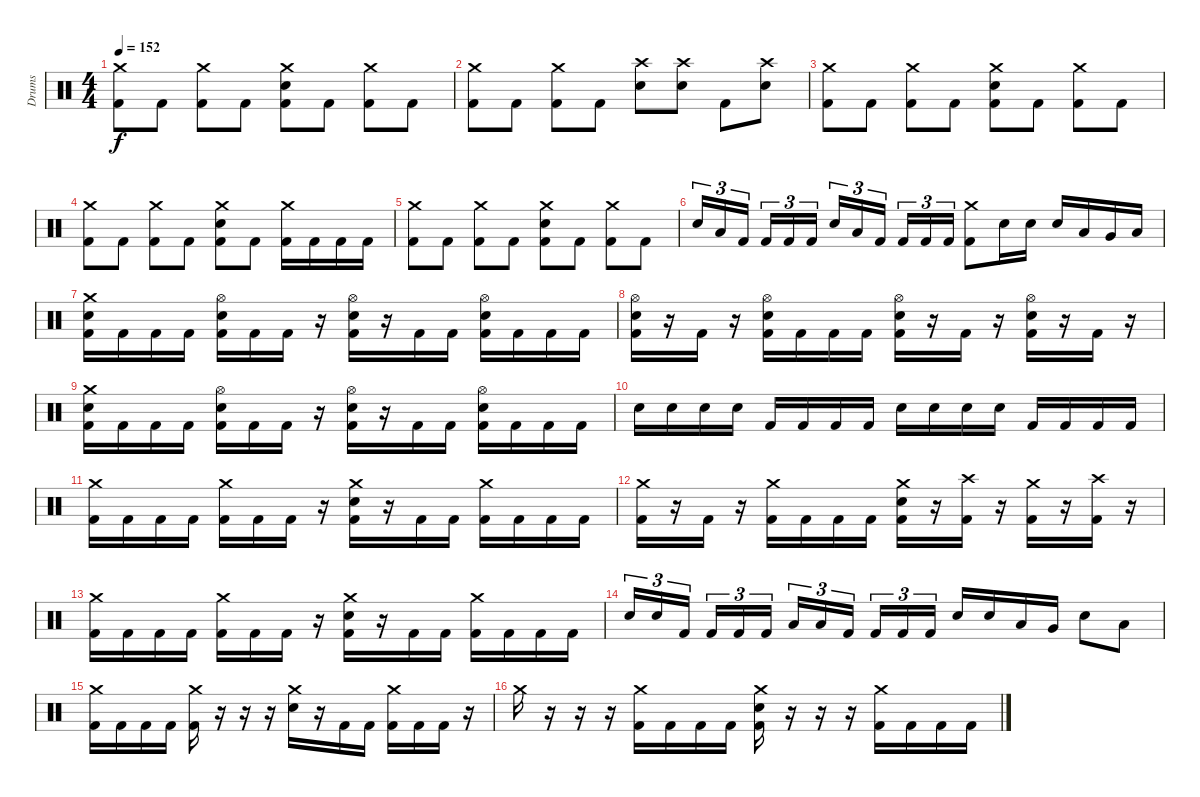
\track ("Drums" "Drums") {instrument percussion}
\staff {score}
\articulation defaults
\ts (4 4)
\tempo 152
\clef neutral
\ks c
("Crash medium (hit)" "Kick (hit) 2").8{dy f} "Kick (hit) 2".8 ("Crash medium (hit)" "Kick (hit) 2").8 "Kick (hit) 2".8 ("Crash medium (hit)" "Electric Snare (hit)" "Kick (hit) 2").8 "Kick (hit) 2".8 ("Crash medium (hit)" "Kick (hit) 2").8 "Kick (hit) 2".8 |
("Crash medium (hit)" "Kick (hit) 2").8 "Kick (hit) 2".8 ("Crash medium (hit)" "Kick (hit) 2").8 "Kick (hit) 2".8 ("Crash high (hit)" "Electric Snare (hit)").8 ("Crash high (hit)" "Electric Snare (hit)").8 "Kick (hit) 2".8 ("Crash high (hit)" "Electric Snare (hit)").8 |
("Crash medium (hit)" "Kick (hit) 2").8 "Kick (hit) 2".8 ("Crash medium (hit)" "Kick (hit) 2").8 "Kick (hit) 2".8 ("Crash medium (hit)" "Electric Snare (hit)" "Kick (hit) 2").8 "Kick (hit) 2".8 ("Crash medium (hit)" "Kick (hit) 2").8 "Kick (hit) 2".8 |
("Crash medium (hit)" "Kick (hit) 2").8 "Kick (hit) 2".8 ("Crash medium (hit)" "Kick (hit) 2").8 "Kick (hit) 2".8 ("Crash medium (hit)" "Electric Snare (hit)" "Kick (hit) 2").8 "Kick (hit) 2".8 ("Crash medium (hit)" "Kick (hit) 2").16 "Kick (hit) 2".16 "Kick (hit) 2".16 "Kick (hit) 2".16 |
("Crash medium (hit)" "Kick (hit) 2").8 "Kick (hit) 2".8 ("Crash medium (hit)" "Kick (hit) 2").8 "Kick (hit) 2".8 ("Crash medium (hit)" "Electric Snare (hit)" "Kick (hit) 2").8 "Kick (hit) 2".8 ("Crash medium (hit)" "Kick (hit) 2").8 "Kick (hit) 2".8 |
"Electric Snare (hit)".16{tu (3 2)} "Low Tom (hit)".16{tu (3 2)} "Kick (hit) 2".16{tu (3 2)} "Kick (hit) 2".16{tu (3 2)} "Kick (hit) 2".16{tu (3 2)} "Kick (hit) 2".16{tu (3 2)} "Electric Snare (hit)".16{tu (3 2)} "Low Tom (hit)".16{tu (3 2)} "Kick (hit) 2".16{tu (3 2)} "Kick (hit) 2".16{tu (3 2)} "Kick (hit) 2".16{tu (3 2)} "Kick (hit) 2".16{tu (3 2)} ("Crash medium (hit)" "Kick (hit) 2").8 "Electric Snare (hit)".16 "Electric Snare (hit)".16 "Electric Snare (hit)".16 "Low Tom (hit)".16 "Very Low Tom (hit)".16 "Low Floor Tom (hit)".16 |
("Crash medium (hit)" "Electric Snare (hit)" "Kick (hit) 2").16 "Kick (hit) 2".16 "Kick (hit) 2".16 "Kick (hit) 2".16 ("Hi-Hat (open)" "Electric Snare (hit)" "Kick (hit) 2").16 "Kick (hit) 2".16 "Kick (hit) 2".16 r.16 ("Hi-Hat (open)" "Electric Snare (hit)" "Kick (hit) 2").16 r.16 "Kick (hit) 2".16 "Kick (hit) 2".16 ("Hi-Hat (open)" "Electric Snare (hit)" "Kick (hit) 2").16 "Kick (hit) 2".16 "Kick (hit) 2".16 "Kick (hit) 2".16 |
("Hi-Hat (open)" "Electric Snare (hit)" "Kick (hit) 2").16 r.16 "Kick (hit) 2".16 r.16 ("Hi-Hat (open)" "Electric Snare (hit)" "Kick (hit) 2").16 "Kick (hit) 2".16 "Kick (hit) 2".16 "Kick (hit) 2".16 ("Hi-Hat (open)" "Electric Snare (hit)" "Kick (hit) 2").16 r.16 "Kick (hit) 2".16 r.16 ("Hi-Hat (open)" "Electric Snare (hit)" "Kick (hit) 2").16 r.16 "Kick (hit) 2".16 r.16 |
("Crash medium (hit)" "Electric Snare (hit)" "Kick (hit) 2").16 "Kick (hit) 2".16 "Kick (hit) 2".16 "Kick (hit) 2".16 ("Hi-Hat (open)" "Electric Snare (hit)" "Kick (hit) 2").16 "Kick (hit) 2".16 "Kick (hit) 2".16 r.16 ("Hi-Hat (open)" "Electric Snare (hit)" "Kick (hit) 2").16 r.16 "Kick (hit) 2".16 "Kick (hit) 2".16 ("Hi-Hat (open)" "Electric Snare (hit)" "Kick (hit) 2").16 "Kick (hit) 2".16 "Kick (hit) 2".16 "Kick (hit) 2".16 |
"Electric Snare (hit)".16 "Electric Snare (hit)".16 "Electric Snare (hit)".16 "Electric Snare (hit)".16 "Kick (hit) 2".16 "Kick (hit) 2".16 "Kick (hit) 2".16 "Kick (hit) 2".16 "Electric Snare (hit)".16 "Electric Snare (hit)".16 "Electric Snare (hit)".16 "Electric Snare (hit)".16 "Kick (hit) 2".16 "Kick (hit) 2".16 "Kick (hit) 2".16 "Kick (hit) 2".16 |
("Crash medium (hit)" "Kick (hit) 2").16 "Kick (hit) 2".16 "Kick (hit) 2".16 "Kick (hit) 2".16 ("Crash medium (hit)" "Kick (hit) 2").16 "Kick (hit) 2".16 "Kick (hit) 2".16 r.16 ("Crash medium (hit)" "Electric Snare (hit)" "Kick (hit) 2").16 r.16 "Kick (hit) 2".16 "Kick (hit) 2".16 ("Crash medium (hit)" "Kick (hit) 2").16 "Kick (hit) 2".16 "Kick (hit) 2".16 "Kick (hit) 2".16 |
("Crash medium (hit)" "Kick (hit) 2").16 r.16 "Kick (hit) 2".16 r.16 ("Crash medium (hit)" "Kick (hit) 2").16 "Kick (hit) 2".16 "Kick (hit) 2".16 "Kick (hit) 2".16 ("Crash medium (hit)" "Electric Snare (hit)" "Kick (hit) 2").16 r.16 ("Crash high (hit)" "Kick (hit) 2").16 r.16 ("Crash medium (hit)" "Kick (hit) 2").16 r.16 ("Crash high (hit)" "Kick (hit) 2").16 r.16 |
("Crash medium (hit)" "Kick (hit) 2").16 "Kick (hit) 2".16 "Kick (hit) 2".16 "Kick (hit) 2".16 ("Crash medium (hit)" "Kick (hit) 2").16 "Kick (hit) 2".16 "Kick (hit) 2".16 r.16 ("Crash medium (hit)" "Electric Snare (hit)" "Kick (hit) 2").16 r.16 "Kick (hit) 2".16 "Kick (hit) 2".16 ("Crash medium (hit)" "Kick (hit) 2").16 "Kick (hit) 2".16 "Kick (hit) 2".16 "Kick (hit) 2".16 |
"Electric Snare (hit)".16{tu (3 2)} "Electric Snare (hit)".16{tu (3 2)} "Kick (hit) 2".16{tu (3 2)} "Kick (hit) 2".16{tu (3 2)} "Kick (hit) 2".16{tu (3 2)} "Kick (hit) 2".16{tu (3 2)} "Low Tom (hit)".16{tu (3 2)} "Low Tom (hit)".16{tu (3 2)} "Kick (hit) 2".16{tu (3 2)} "Kick (hit) 2".16{tu (3 2)} "Kick (hit) 2".16{tu (3 2)} "Kick (hit) 2".16{tu (3 2)} "Electric Snare (hit)".16 "Electric Snare (hit)".16 "Low Tom (hit)".16 "Very Low Tom (hit)".16 "Electric Snare (hit)".8 "Low Floor Tom (hit)".8 |
("Crash medium (hit)" "Kick (hit) 2").16 "Kick (hit) 2".16 "Kick (hit) 2".16 "Kick (hit) 2".16 ("Crash medium (hit)" "Kick (hit) 2").16 r.16 r.16 r.16 ("Crash medium (hit)" "Electric Snare (hit)").16 r.16 "Kick (hit) 2".16 "Kick (hit) 2".16 ("Crash medium (hit)" "Kick (hit) 2").16 "Kick (hit) 2".16 "Kick (hit) 2".16 r.16 |
"Crash medium (hit)".16 r.16 r.16 r.16 ("Crash medium (hit)" "Kick (hit) 2").16 "Kick (hit) 2".16 "Kick (hit) 2".16 "Kick (hit) 2".16 ("Crash medium (hit)" "Electric Snare (hit)" "Kick (hit) 2").16 r.16 r.16 r.16 ("Crash medium (hit)" "Kick (hit) 2").16 "Kick (hit) 2".16 "Kick (hit) 2".16 "Kick (hit) 2".16
